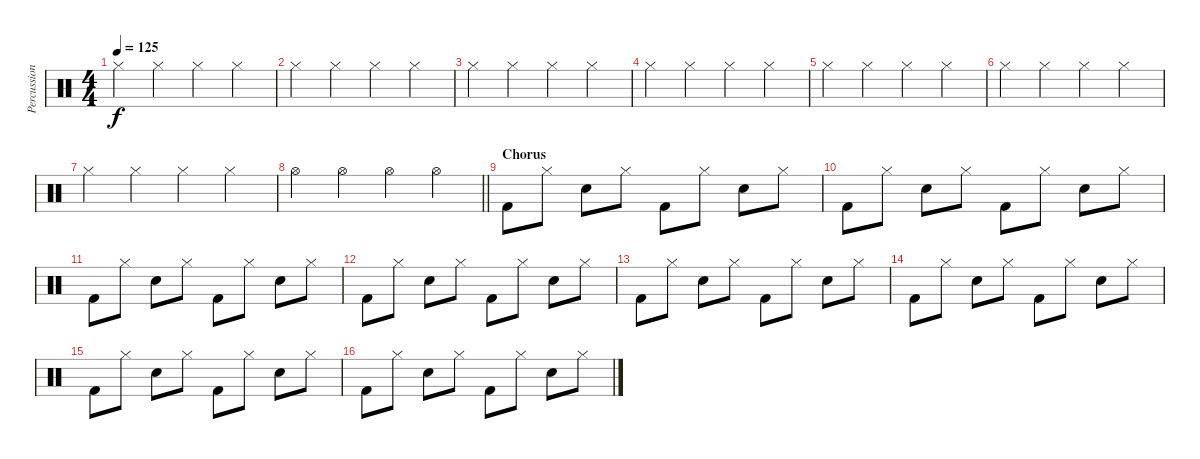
\track ("Percussion" "Percussion") {instrument percussion}
\staff {score}
\articulation defaults
\ts (4 4)
\tempo 125
\clef neutral
\ks c "Hi-Hat (closed)".4{dy f} "Hi-Hat (closed)".4 "Hi-Hat (closed)".4 "Hi-Hat (closed)".4
|
"Hi-Hat (closed)".4 "Hi-Hat (closed)".4 "Hi-Hat (closed)".4 "Hi-Hat (closed)".4 |
"Hi-Hat (closed)".4 "Hi-Hat (closed)".4 "Hi-Hat (closed)".4 "Hi-Hat (closed)".4 |
"Hi-Hat (closed)".4 "Hi-Hat (closed)".4 "Hi-Hat (closed)".4 "Hi-Hat (closed)".4 |
"Hi-Hat (closed)".4 "Hi-Hat (closed)".4 "Hi-Hat (closed)".4 "Hi-Hat (closed)".4 |
"Hi-Hat (closed)".4 "Hi-Hat (closed)".4 "Hi-Hat (closed)".4 "Hi-Hat (closed)".4 |
"Hi-Hat (closed)".4 "Hi-Hat (closed)".4 "Hi-Hat (closed)".4 "Hi-Hat (closed)".4 |
\barLineRight lightlight "Hi-Hat (open)".4 "Hi-Hat (open)".4 "Hi-Hat (open)".4 "Hi-Hat (open)".4
|
\section ("" "Chorus")
"Kick (hit) 2".8 "Hi-Hat (closed)".8 "Snare (hit) 2".8 "Hi-Hat (closed)".8 "Kick (hit) 2".8 "Hi-Hat (closed)".8 "Snare (hit) 2".8 "Hi-Hat (closed)".8 |
"Kick (hit) 2".8 "Hi-Hat (closed)".8 "Snare (hit) 2".8 "Hi-Hat (closed)".8 "Kick (hit) 2".8 "Hi-Hat (closed)".8 "Snare (hit) 2".8 "Hi-Hat (closed)".8 |
"Kick (hit) 2".8 "Hi-Hat (closed)".8 "Snare (hit) 2".8 "Hi-Hat (closed)".8 "Kick (hit) 2".8 "Hi-Hat (closed)".8 "Snare (hit) 2".8 "Hi-Hat (closed)".8 |
"Kick (hit) 2".8 "Hi-Hat (closed)".8 "Snare (hit) 2".8 "Hi-Hat (closed)".8 "Kick (hit) 2".8 "Hi-Hat (closed)".8 "Snare (hit) 2".8 "Hi-Hat (closed)".8 |
"Kick (hit) 2".8 "Hi-Hat (closed)".8 "Snare (hit) 2".8 "Hi-Hat (closed)".8 "Kick (hit) 2".8 "Hi-Hat (closed)".8 "Snare (hit) 2".8 "Hi-Hat (closed)".8 |
"Kick (hit) 2".8 "Hi-Hat (closed)".8 "Snare (hit) 2".8 "Hi-Hat (closed)".8 "Kick (hit) 2".8 "Hi-Hat (closed)".8 "Snare (hit) 2".8 "Hi-Hat (closed)".8 |
"Kick (hit) 2".8 "Hi-Hat (closed)".8 "Snare (hit) 2".8 "Hi-Hat (closed)".8 "Kick (hit) 2".8 "Hi-Hat (closed)".8 "Snare (hit) 2".8 "Hi-Hat (closed)".8 |
"Kick (hit) 2".8 "Hi-Hat (closed)".8 "Snare (hit) 2".8 "Hi-Hat (closed)".8 "Kick (hit) 2".8 "Hi-Hat (closed)".8 "Snare (hit) 2".8 "Hi-Hat (closed)".8
